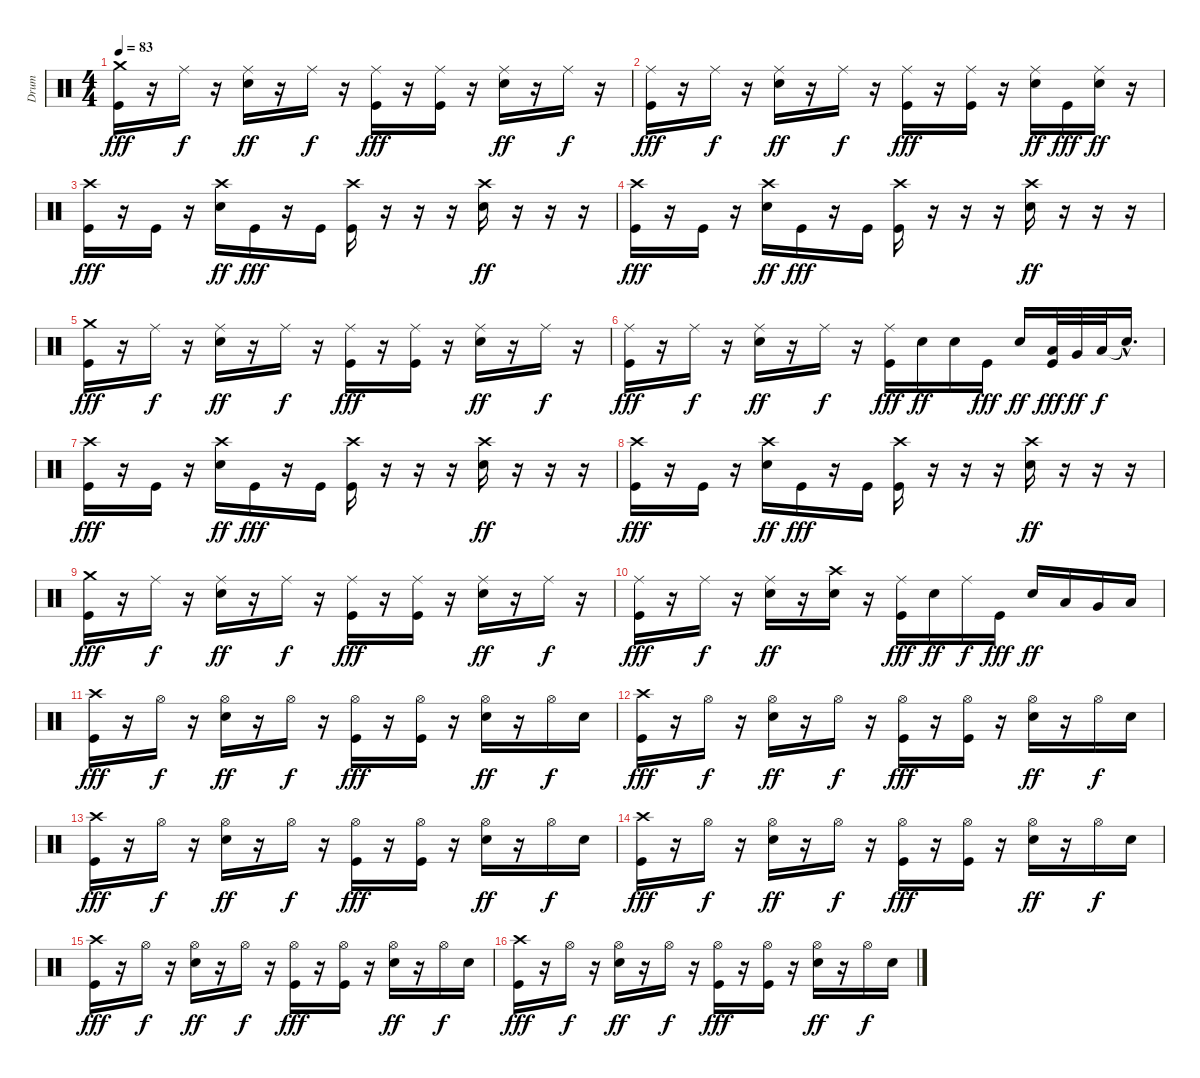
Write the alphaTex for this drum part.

\track ("Drum" "Drum") {instrument percussion}
\staff {score}
\articulation defaults
\ts (4 4)
\tempo 83
\clef neutral
\ks c
("Crash medium (hit)" "Kick (hit)").16{dy fff} r.16 "Ride (middle)".16{dy f} r.16 ("Ride (middle)" "Snare (hit) 2").16{dy ff} r.16 "Ride (middle)".16{dy f} r.16 ("Ride (middle)" "Kick (hit)").16{dy fff} r.16 ("Ride (middle)" "Kick (hit)").16 r.16 ("Ride (middle)" "Snare (hit) 2").16{dy ff} r.16 "Ride (middle)".16{dy f} r.16 |
("Ride (middle)" "Kick (hit)").16{dy fff} r.16 "Ride (middle)".16{dy f} r.16 ("Ride (middle)" "Snare (hit) 2").16{dy ff} r.16 "Ride (middle)".16{dy f} r.16 ("Ride (middle)" "Kick (hit)").16{dy fff} r.16 ("Ride (middle)" "Kick (hit)").16 r.16 ("Ride (middle)" "Snare (hit) 2").16{dy ff} "Kick (hit)".16{dy fff} ("Ride (middle)" "Snare (hit) 2").16{dy ff} r.16 |
("Crash high (hit)" "Kick (hit)").16{dy fff} r.16 "Kick (hit)".16 r.16 ("Crash high (hit)" "Snare (hit) 2").16{dy ff} "Kick (hit)".16{dy fff} r.16 "Kick (hit)".16 ("Crash high (hit)" "Kick (hit)").16 r.16 r.16 r.16 ("Crash high (hit)" "Snare (hit) 2").16{dy ff} r.16 r.16 r.16 |
("Crash high (hit)" "Kick (hit)").16{dy fff} r.16 "Kick (hit)".16 r.16 ("Crash high (hit)" "Snare (hit) 2").16{dy ff} "Kick (hit)".16{dy fff} r.16 "Kick (hit)".16 ("Crash high (hit)" "Kick (hit)").16 r.16 r.16 r.16 ("Crash high (hit)" "Snare (hit) 2").16{dy ff} r.16 r.16 r.16 |
("Crash medium (hit)" "Kick (hit)").16{dy fff} r.16 "Ride (middle)".16{dy f} r.16 ("Ride (middle)" "Snare (hit) 2").16{dy ff} r.16 "Ride (middle)".16{dy f} r.16 ("Ride (middle)" "Kick (hit)").16{dy fff} r.16 ("Ride (middle)" "Kick (hit)").16 r.16 ("Ride (middle)" "Snare (hit) 2").16{dy ff} r.16 "Ride (middle)".16{dy f} r.16 |
("Ride (middle)" "Kick (hit)").16{dy fff} r.16 "Ride (middle)".16{dy f} r.16 ("Ride (middle)" "Snare (hit) 2").16{dy ff} r.16 "Ride (middle)".16{dy f} r.16 ("Ride (middle)" "Kick (hit)").16{dy fff} "Snare (hit) 2".16{dy ff} "Snare (hit) 2".16 "Kick (hit)".16{dy fff} "Snare (hit) 2".16{dy ff} ("Low Tom (hit)" "Kick (hit)").32{dy fff} "Very Low Tom (hit)".32{dy ff} "Low Floor Tom (hit)".32{dy f} "Snare (hit)"{hac t}.16{d} |
("Crash high (hit)" "Kick (hit)").16{dy fff} r.16 "Kick (hit)".16 r.16 ("Crash high (hit)" "Snare (hit) 2").16{dy ff} "Kick (hit)".16{dy fff} r.16 "Kick (hit)".16 ("Crash high (hit)" "Kick (hit)").16 r.16 r.16 r.16 ("Crash high (hit)" "Snare (hit) 2").16{dy ff} r.16 r.16 r.16 |
("Crash high (hit)" "Kick (hit)").16{dy fff} r.16 "Kick (hit)".16 r.16 ("Crash high (hit)" "Snare (hit) 2").16{dy ff} "Kick (hit)".16{dy fff} r.16 "Kick (hit)".16 ("Crash high (hit)" "Kick (hit)").16 r.16 r.16 r.16 ("Crash high (hit)" "Snare (hit) 2").16{dy ff} r.16 r.16 r.16 |
("Crash medium (hit)" "Kick (hit)").16{dy fff} r.16 "Ride (middle)".16{dy f} r.16 ("Ride (middle)" "Snare (hit) 2").16{dy ff} r.16 "Ride (middle)".16{dy f} r.16 ("Ride (middle)" "Kick (hit)").16{dy fff} r.16 ("Ride (middle)" "Kick (hit)").16 r.16 ("Ride (middle)" "Snare (hit) 2").16{dy ff} r.16 "Ride (middle)".16{dy f} r.16 |
("Ride (middle)" "Kick (hit)").16{dy fff} r.16 "Ride (middle)".16{dy f} r.16 ("Ride (middle)" "Snare (hit) 2").16{dy ff} r.16 ("Crash high (hit)" "Snare (hit) 2").16 r.16 ("Ride (middle)" "Kick (hit)").16{dy fff} "Snare (hit) 2".16{dy ff} "Ride (middle)".16{dy f} "Kick (hit)".16{dy fff} "Snare (hit) 2".16{dy ff} "Low Tom (hit)".16 "Very Low Tom (hit)".16 "Low Floor Tom (hit)".16 |
("Crash high (hit)" "Kick (hit)").16{dy fff} r.16 "Hi-Hat (open)".16{dy f} r.16 ("Hi-Hat (open)" "Snare (hit) 2").16{dy ff} r.16 "Hi-Hat (open)".16{dy f} r.16 ("Hi-Hat (open)" "Kick (hit)").16{dy fff} r.16 ("Hi-Hat (open)" "Kick (hit)").16 r.16 ("Hi-Hat (open)" "Snare (hit) 2").16{dy ff} r.16 "Hi-Hat (open)".16{dy f} "Snare (hit) 2".16 |
("Crash high (hit)" "Kick (hit)").16{dy fff} r.16 "Hi-Hat (open)".16{dy f} r.16 ("Hi-Hat (open)" "Snare (hit) 2").16{dy ff} r.16 "Hi-Hat (open)".16{dy f} r.16 ("Hi-Hat (open)" "Kick (hit)").16{dy fff} r.16 ("Hi-Hat (open)" "Kick (hit)").16 r.16 ("Hi-Hat (open)" "Snare (hit) 2").16{dy ff} r.16 "Hi-Hat (open)".16{dy f} "Snare (hit) 2".16 |
("Crash high (hit)" "Kick (hit)").16{dy fff} r.16 "Hi-Hat (open)".16{dy f} r.16 ("Hi-Hat (open)" "Snare (hit) 2").16{dy ff} r.16 "Hi-Hat (open)".16{dy f} r.16 ("Hi-Hat (open)" "Kick (hit)").16{dy fff} r.16 ("Hi-Hat (open)" "Kick (hit)").16 r.16 ("Hi-Hat (open)" "Snare (hit) 2").16{dy ff} r.16 "Hi-Hat (open)".16{dy f} "Snare (hit) 2".16 |
("Crash high (hit)" "Kick (hit)").16{dy fff} r.16 "Hi-Hat (open)".16{dy f} r.16 ("Hi-Hat (open)" "Snare (hit) 2").16{dy ff} r.16 "Hi-Hat (open)".16{dy f} r.16 ("Hi-Hat (open)" "Kick (hit)").16{dy fff} r.16 ("Hi-Hat (open)" "Kick (hit)").16 r.16 ("Hi-Hat (open)" "Snare (hit) 2").16{dy ff} r.16 "Hi-Hat (open)".16{dy f} "Snare (hit) 2".16 |
("Crash high (hit)" "Kick (hit)").16{dy fff} r.16 "Hi-Hat (open)".16{dy f} r.16 ("Hi-Hat (open)" "Snare (hit) 2").16{dy ff} r.16 "Hi-Hat (open)".16{dy f} r.16 ("Hi-Hat (open)" "Kick (hit)").16{dy fff} r.16 ("Hi-Hat (open)" "Kick (hit)").16 r.16 ("Hi-Hat (open)" "Snare (hit) 2").16{dy ff} r.16 "Hi-Hat (open)".16{dy f} "Snare (hit) 2".16 |
("Crash high (hit)" "Kick (hit)").16{dy fff} r.16 "Hi-Hat (open)".16{dy f} r.16 ("Hi-Hat (open)" "Snare (hit) 2").16{dy ff} r.16 "Hi-Hat (open)".16{dy f} r.16 ("Hi-Hat (open)" "Kick (hit)").16{dy fff} r.16 ("Hi-Hat (open)" "Kick (hit)").16 r.16 ("Hi-Hat (open)" "Snare (hit) 2").16{dy ff} r.16 "Hi-Hat (open)".16{dy f} "Snare (hit) 2".16
